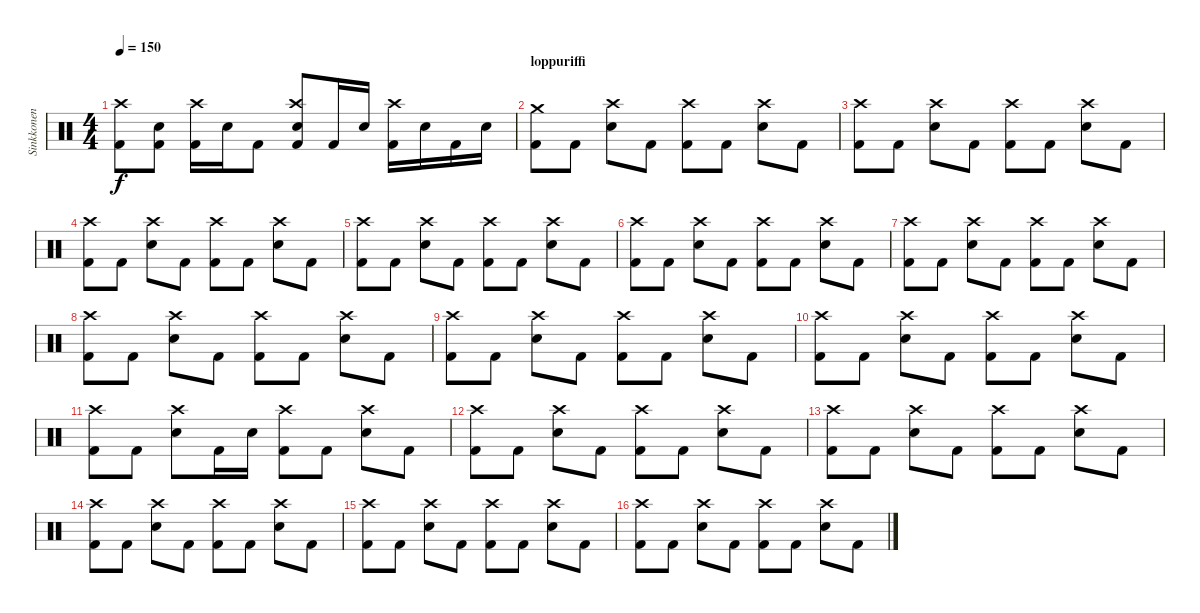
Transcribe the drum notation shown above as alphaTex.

\track ("Sinkkonen" "Sinkkonen") {instrument percussion}
\staff {score}
\articulation defaults
\ts (4 4)
\tempo 150
\clef neutral
\ks c
("Kick (hit) 2" "Crash high (hit)").8{dy f} ("Kick (hit) 2" "Snare (hit) 2").8 ("Kick (hit) 2" "Crash high (hit)").16 "Snare (hit) 2".16 "Kick (hit) 2".8 ("Kick (hit) 2" "Crash high (hit)" "Snare (hit) 2").8 "Kick (hit) 2".16 "Snare (hit) 2".16 ("Kick (hit) 2" "Crash high (hit)").16 "Snare (hit) 2".16 "Kick (hit) 2".16 "Snare (hit) 2".16 |
\section ("" "loppuriffi")
("Kick (hit) 2" "Crash medium (hit)").8{volume 12} "Kick (hit) 2".8 ("Crash high (hit)" "Snare (hit) 2").8 "Kick (hit) 2".8 ("Kick (hit) 2" "Crash high (hit)").8 "Kick (hit) 2".8 ("Crash high (hit)" "Snare (hit) 2").8 "Kick (hit) 2".8 |
("Kick (hit) 2" "Crash high (hit)").8 "Kick (hit) 2".8 ("Crash high (hit)" "Snare (hit) 2").8 "Kick (hit) 2".8 ("Kick (hit) 2" "Crash high (hit)").8 "Kick (hit) 2".8 ("Crash high (hit)" "Snare (hit) 2").8 "Kick (hit) 2".8 |
("Kick (hit) 2" "Crash high (hit)").8 "Kick (hit) 2".8 ("Crash high (hit)" "Snare (hit) 2").8 "Kick (hit) 2".8 ("Kick (hit) 2" "Crash high (hit)").8 "Kick (hit) 2".8 ("Crash high (hit)" "Snare (hit) 2").8 "Kick (hit) 2".8 |
("Kick (hit) 2" "Crash high (hit)").8 "Kick (hit) 2".8 ("Crash high (hit)" "Snare (hit) 2").8 "Kick (hit) 2".8 ("Kick (hit) 2" "Crash high (hit)").8 "Kick (hit) 2".8 ("Crash high (hit)" "Snare (hit) 2").8 "Kick (hit) 2".8 |
("Kick (hit) 2" "Crash high (hit)").8{volume 9} "Kick (hit) 2".8 ("Crash high (hit)" "Snare (hit) 2").8 "Kick (hit) 2".8 ("Kick (hit) 2" "Crash high (hit)").8 "Kick (hit) 2".8 ("Crash high (hit)" "Snare (hit) 2").8 "Kick (hit) 2".8 |
("Kick (hit) 2" "Crash high (hit)").8 "Kick (hit) 2".8 ("Crash high (hit)" "Snare (hit) 2").8 "Kick (hit) 2".8 ("Kick (hit) 2" "Crash high (hit)").8 "Kick (hit) 2".8 ("Crash high (hit)" "Snare (hit) 2").8 "Kick (hit) 2".8 |
("Kick (hit) 2" "Crash high (hit)").8 "Kick (hit) 2".8 ("Crash high (hit)" "Snare (hit) 2").8 "Kick (hit) 2".8 ("Kick (hit) 2" "Crash high (hit)").8 "Kick (hit) 2".8 ("Crash high (hit)" "Snare (hit) 2").8 "Kick (hit) 2".8 |
("Kick (hit) 2" "Crash high (hit)").8 "Kick (hit) 2".8 ("Crash high (hit)" "Snare (hit) 2").8 "Kick (hit) 2".8 ("Kick (hit) 2" "Crash high (hit)").8 "Kick (hit) 2".8 ("Crash high (hit)" "Snare (hit) 2").8 "Kick (hit) 2".8 |
("Kick (hit) 2" "Crash high (hit)").8{volume 5} "Kick (hit) 2".8 ("Crash high (hit)" "Snare (hit) 2").8 "Kick (hit) 2".8 ("Kick (hit) 2" "Crash high (hit)").8 "Kick (hit) 2".8 ("Crash high (hit)" "Snare (hit) 2").8 "Kick (hit) 2".8 |
("Kick (hit) 2" "Crash high (hit)").8 "Kick (hit) 2".8 ("Crash high (hit)" "Snare (hit) 2").8 "Kick (hit) 2".16 "Snare (hit) 2".16 ("Kick (hit) 2" "Crash high (hit)").8 "Kick (hit) 2".8 ("Crash high (hit)" "Snare (hit) 2").8 "Kick (hit) 2".8 |
("Kick (hit) 2" "Crash high (hit)").8 "Kick (hit) 2".8 ("Crash high (hit)" "Snare (hit) 2").8 "Kick (hit) 2".8 ("Kick (hit) 2" "Crash high (hit)").8 "Kick (hit) 2".8 ("Crash high (hit)" "Snare (hit) 2").8 "Kick (hit) 2".8 |
("Kick (hit) 2" "Crash high (hit)").8 "Kick (hit) 2".8 ("Crash high (hit)" "Snare (hit) 2").8 "Kick (hit) 2".8 ("Kick (hit) 2" "Crash high (hit)").8 "Kick (hit) 2".8 ("Crash high (hit)" "Snare (hit) 2").8 "Kick (hit) 2".8 |
("Kick (hit) 2" "Crash high (hit)").8{volume 1} "Kick (hit) 2".8 ("Crash high (hit)" "Snare (hit) 2").8 "Kick (hit) 2".8 ("Kick (hit) 2" "Crash high (hit)").8 "Kick (hit) 2".8 ("Crash high (hit)" "Snare (hit) 2").8 "Kick (hit) 2".8 |
("Kick (hit) 2" "Crash high (hit)").8 "Kick (hit) 2".8 ("Crash high (hit)" "Snare (hit) 2").8 "Kick (hit) 2".8 ("Kick (hit) 2" "Crash high (hit)").8 "Kick (hit) 2".8 ("Crash high (hit)" "Snare (hit) 2").8 "Kick (hit) 2".8 |
("Kick (hit) 2" "Crash high (hit)").8 "Kick (hit) 2".8 ("Crash high (hit)" "Snare (hit) 2").8 "Kick (hit) 2".8 ("Kick (hit) 2" "Crash high (hit)").8 "Kick (hit) 2".8 ("Crash high (hit)" "Snare (hit) 2").8 "Kick (hit) 2".8
